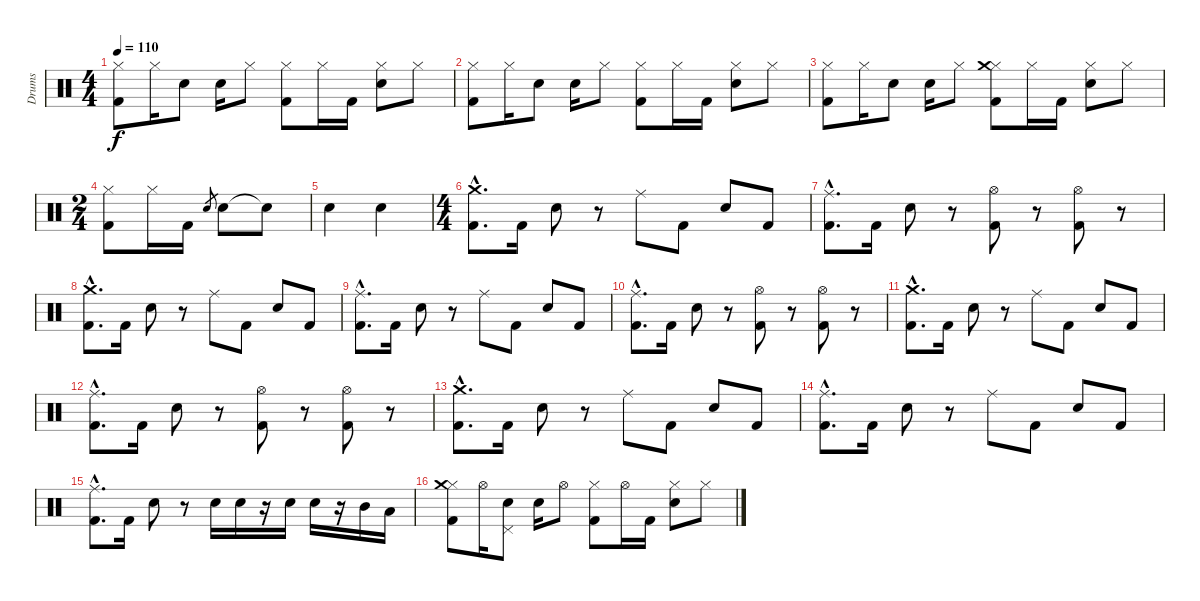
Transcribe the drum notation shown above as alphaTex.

\track ("Drums" "Drums") {instrument percussion}
\staff {score}
\articulation defaults
\ts (4 4)
\tempo 110
\clef neutral
\ks c
("Hi-Hat (closed)" "Kick (hit) 2").8{dy f} "Hi-Hat (closed)".16 "Electric Snare (hit)".8 "Electric Snare (hit)".16 "Hi-Hat (closed)".8 ("Hi-Hat (closed)" "Kick (hit) 2").8 "Hi-Hat (closed)".16 "Kick (hit) 2".16 ("Hi-Hat (closed)" "Electric Snare (hit)").8 "Hi-Hat (closed)".8 |
("Hi-Hat (closed)" "Kick (hit) 2").8 "Hi-Hat (closed)".16 "Electric Snare (hit)".8 "Electric Snare (hit)".16 "Hi-Hat (closed)".8 ("Hi-Hat (closed)" "Kick (hit) 2").8 "Hi-Hat (closed)".16 "Kick (hit) 2".16 ("Hi-Hat (closed)" "Electric Snare (hit)").8 "Hi-Hat (closed)".8 |
("Hi-Hat (closed)" "Kick (hit) 2").8 "Hi-Hat (closed)".16 "Electric Snare (hit)".8 "Electric Snare (hit)".16 "Hi-Hat (closed)".8 ("Hi-Hat (closed)" "Kick (hit) 2" "Crash medium (hit)").8 "Hi-Hat (closed)".16 "Kick (hit) 2".16 ("Hi-Hat (closed)" "Electric Snare (hit)").8 "Hi-Hat (closed)".8 |
\ts (2 4)
("Hi-Hat (closed)" "Kick (hit) 2").8 "Hi-Hat (closed)".16 "Kick (hit) 2".16 "Electric Snare (hit)".8{gr} "Electric Snare (hit)".8 "Snare (hit)"{t}.8 |
"Electric Snare (hit)".4 "Electric Snare (hit)".4 |
\ts (4 4)
("Crash medium (hit)"{hac} "Kick (hit) 2"{hac}).8{d} "Kick (hit) 2".16 "Electric Snare (hit)".8 r.8 "Ride (middle)".8 "Kick (hit) 2".8 "Electric Snare (hit)".8 "Kick (hit) 2".8 |
("Ride (middle)"{hac} "Kick (hit) 2"{hac}).8{d} "Kick (hit) 2".16 "Electric Snare (hit)".8 r.8 ("Hi-Hat (open)" "Kick (hit) 2").8 r.8 ("Hi-Hat (open)" "Kick (hit) 2").8 r.8 |
("Crash medium (hit)"{hac} "Kick (hit) 2"{hac}).8{d} "Kick (hit) 2".16 "Electric Snare (hit)".8 r.8 "Ride (middle)".8 "Kick (hit) 2".8 "Electric Snare (hit)".8 "Kick (hit) 2".8 |
("Ride (middle)"{hac} "Kick (hit) 2"{hac}).8{d} "Kick (hit) 2".16 "Electric Snare (hit)".8 r.8 "Ride (middle)".8 "Kick (hit) 2".8 "Electric Snare (hit)".8 "Kick (hit) 2".8 |
("Ride (middle)"{hac} "Kick (hit) 2"{hac}).8{d} "Kick (hit) 2".16 "Electric Snare (hit)".8 r.8 ("Hi-Hat (open)" "Kick (hit) 2").8 r.8 ("Hi-Hat (open)" "Kick (hit) 2").8 r.8 |
("Crash medium (hit)"{hac} "Kick (hit) 2"{hac}).8{d} "Kick (hit) 2".16 "Electric Snare (hit)".8 r.8 "Ride (middle)".8 "Kick (hit) 2".8 "Electric Snare (hit)".8 "Kick (hit) 2".8 |
("Ride (middle)"{hac} "Kick (hit) 2"{hac}).8{d} "Kick (hit) 2".16 "Electric Snare (hit)".8 r.8 ("Hi-Hat (open)" "Kick (hit) 2").8 r.8 ("Hi-Hat (open)" "Kick (hit) 2").8 r.8 |
("Crash medium (hit)"{hac} "Kick (hit) 2"{hac}).8{d} "Kick (hit) 2".16 "Electric Snare (hit)".8 r.8 "Ride (middle)".8 "Kick (hit) 2".8 "Electric Snare (hit)".8 "Kick (hit) 2".8 |
("Ride (middle)"{hac} "Kick (hit) 2"{hac}).8{d} "Kick (hit) 2".16 "Electric Snare (hit)".8 r.8 "Ride (middle)".8 "Kick (hit) 2".8 "Electric Snare (hit)".8 "Kick (hit) 2".8 |
("Ride (middle)"{hac} "Kick (hit) 2"{hac}).8{d} "Kick (hit) 2".16 "Electric Snare (hit)".8 r.8 "Electric Snare (hit)".16 "Electric Snare (hit)".16 r.16 "Electric Snare (hit)".16 "Electric Snare (hit)".16 r.16 "Mid Tom (hit)".16 "Low Tom (hit)".16 |
("Hi-Hat (closed)" "Kick (hit) 2" "Crash medium (hit)").8 "Hi-Hat (open)".16 ("Electric Snare (hit)" "Pedal Hi-Hat (hit)").8 "Electric Snare (hit)".16 "Hi-Hat (open)".8 ("Hi-Hat (closed)" "Kick (hit) 2").8 "Hi-Hat (open)".16 "Kick (hit) 2".16 ("Hi-Hat (closed)" "Electric Snare (hit)").8 "Hi-Hat (closed)".8
